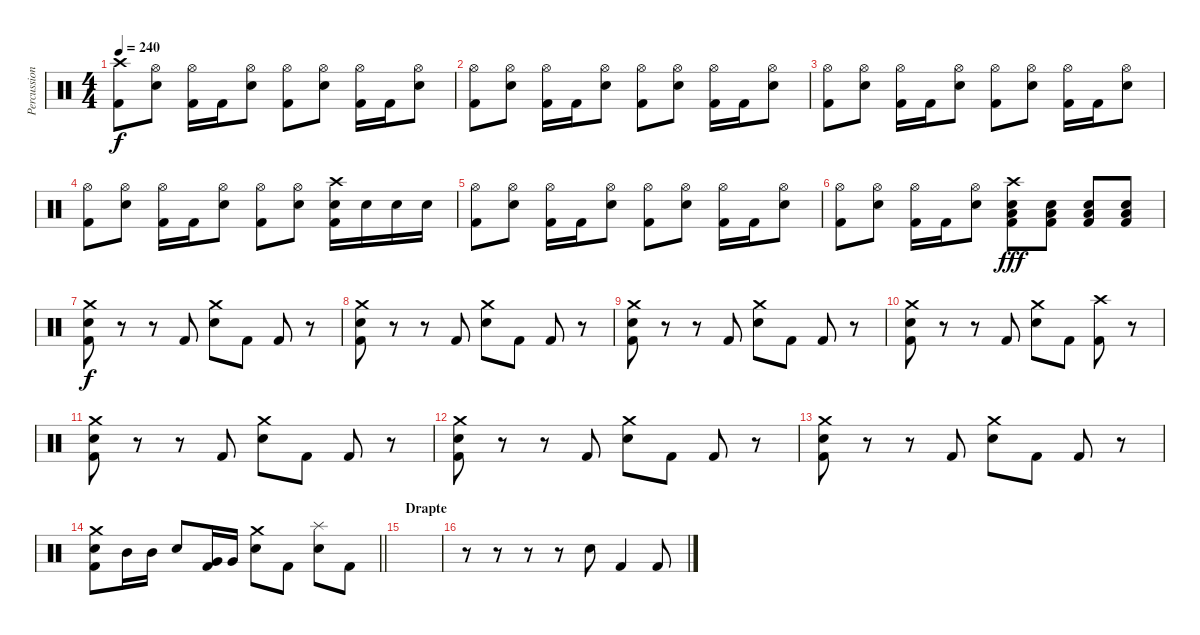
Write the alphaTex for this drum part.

\track ("Percussion" "Percussion") {instrument percussion}
\staff {score}
\articulation defaults
\ts (4 4)
\tempo 240
\clef neutral
\ks c
("Crash high (hit)" "Kick (hit) 2").8{dy f} ("Hi-Hat (open)" "Electric Snare (hit)").8 ("Hi-Hat (open)" "Kick (hit) 2").16 "Kick (hit) 2".16 ("Hi-Hat (open)" "Electric Snare (hit)").8 ("Hi-Hat (open)" "Kick (hit) 2").8 ("Hi-Hat (open)" "Electric Snare (hit)").8 ("Hi-Hat (open)" "Kick (hit) 2").16 "Kick (hit) 2".16 ("Hi-Hat (open)" "Electric Snare (hit)").8 |
("Hi-Hat (open)" "Kick (hit) 2").8 ("Hi-Hat (open)" "Electric Snare (hit)").8 ("Hi-Hat (open)" "Kick (hit) 2").16 "Kick (hit) 2".16 ("Hi-Hat (open)" "Electric Snare (hit)").8 ("Hi-Hat (open)" "Kick (hit) 2").8 ("Hi-Hat (open)" "Electric Snare (hit)").8 ("Hi-Hat (open)" "Kick (hit) 2").16 "Kick (hit) 2".16 ("Hi-Hat (open)" "Electric Snare (hit)").8 |
("Hi-Hat (open)" "Kick (hit) 2").8 ("Hi-Hat (open)" "Electric Snare (hit)").8 ("Hi-Hat (open)" "Kick (hit) 2").16 "Kick (hit) 2".16 ("Hi-Hat (open)" "Electric Snare (hit)").8 ("Hi-Hat (open)" "Kick (hit) 2").8 ("Hi-Hat (open)" "Electric Snare (hit)").8 ("Hi-Hat (open)" "Kick (hit) 2").16 "Kick (hit) 2".16 ("Hi-Hat (open)" "Electric Snare (hit)").8 |
("Hi-Hat (open)" "Kick (hit) 2").8 ("Hi-Hat (open)" "Electric Snare (hit)").8 ("Hi-Hat (open)" "Kick (hit) 2").16 "Kick (hit) 2".16 ("Hi-Hat (open)" "Electric Snare (hit)").8 ("Hi-Hat (open)" "Kick (hit) 2").8 ("Hi-Hat (open)" "Electric Snare (hit)").8 ("Crash high (hit)" "Electric Snare (hit)" "Kick (hit) 2").16 "Electric Snare (hit)".16 "Electric Snare (hit)".16 "Electric Snare (hit)".16 |
("Hi-Hat (open)" "Kick (hit) 2").8 ("Hi-Hat (open)" "Electric Snare (hit)").8 ("Hi-Hat (open)" "Kick (hit) 2").16 "Kick (hit) 2".16 ("Hi-Hat (open)" "Electric Snare (hit)").8 ("Hi-Hat (open)" "Kick (hit) 2").8 ("Hi-Hat (open)" "Electric Snare (hit)").8 ("Hi-Hat (open)" "Kick (hit) 2").16 "Kick (hit) 2".16 ("Hi-Hat (open)" "Electric Snare (hit)").8 |
("Hi-Hat (open)" "Kick (hit) 2").8 ("Hi-Hat (open)" "Electric Snare (hit)").8 ("Hi-Hat (open)" "Kick (hit) 2").16 "Kick (hit) 2".16 ("Hi-Hat (open)" "Electric Snare (hit)").8 ("Crash high (hit)" "Low Floor Tom (hit)" "Electric Snare (hit)" "Kick (hit) 2").8{dy fff} ("Low Floor Tom (hit)" "Electric Snare (hit)" "Kick (hit) 2").8 ("Low Floor Tom (hit)" "Electric Snare (hit)" "Kick (hit) 2").8 ("Low Floor Tom (hit)" "Electric Snare (hit)" "Kick (hit) 2").8 |
("Crash medium (hit)" "Electric Snare (hit)" "Kick (hit) 2").8{dy f} r.8 r.8 "Kick (hit) 2".8 ("Crash medium (hit)" "Electric Snare (hit)").8 "Kick (hit) 2".8 "Kick (hit) 2".8 r.8 |
("Crash medium (hit)" "Electric Snare (hit)" "Kick (hit) 2").8 r.8 r.8 "Kick (hit) 2".8 ("Crash medium (hit)" "Electric Snare (hit)").8 "Kick (hit) 2".8 "Kick (hit) 2".8 r.8 |
("Crash medium (hit)" "Electric Snare (hit)" "Kick (hit) 2").8 r.8 r.8 "Kick (hit) 2".8 ("Crash medium (hit)" "Electric Snare (hit)").8 "Kick (hit) 2".8 "Kick (hit) 2".8 r.8 |
("Crash medium (hit)" "Electric Snare (hit)" "Kick (hit) 2").8 r.8 r.8 "Kick (hit) 2".8 ("Crash medium (hit)" "Electric Snare (hit)").8 "Kick (hit) 2".8 ("Crash high (hit)" "Kick (hit) 2").8 r.8 |
("Crash medium (hit)" "Electric Snare (hit)" "Kick (hit) 2").8 r.8 r.8 "Kick (hit) 2".8 ("Crash medium (hit)" "Electric Snare (hit)").8 "Kick (hit) 2".8 "Kick (hit) 2".8 r.8 |
("Crash medium (hit)" "Electric Snare (hit)" "Kick (hit) 2").8 r.8 r.8 "Kick (hit) 2".8 ("Crash medium (hit)" "Electric Snare (hit)").8 "Kick (hit) 2".8 "Kick (hit) 2".8 r.8 |
("Crash medium (hit)" "Electric Snare (hit)" "Kick (hit) 2").8 r.8 r.8 "Kick (hit) 2".8 ("Crash medium (hit)" "Electric Snare (hit)").8 "Kick (hit) 2".8 "Kick (hit) 2".8 r.8 |
\barLineRight lightlight
("Crash medium (hit)" "Electric Snare (hit)" "Kick (hit) 2").8 "Mid Tom (hit)".16 "Mid Tom (hit)".16 "Electric Snare (hit)".8 ("Very Low Tom (hit)" "Kick (hit) 2").16 "Very Low Tom (hit)".16 ("Crash medium (hit)" "Electric Snare (hit)").8 "Kick (hit) 2".8 ("Splash (hit)" "Electric Snare (hit)").8 "Kick (hit) 2".8 |
\section ("" "Drapte")
|
r.8 r.8 r.8 r.8 "Electric Snare (hit)".8 "Kick (hit) 2".4 "Kick (hit) 2".8
